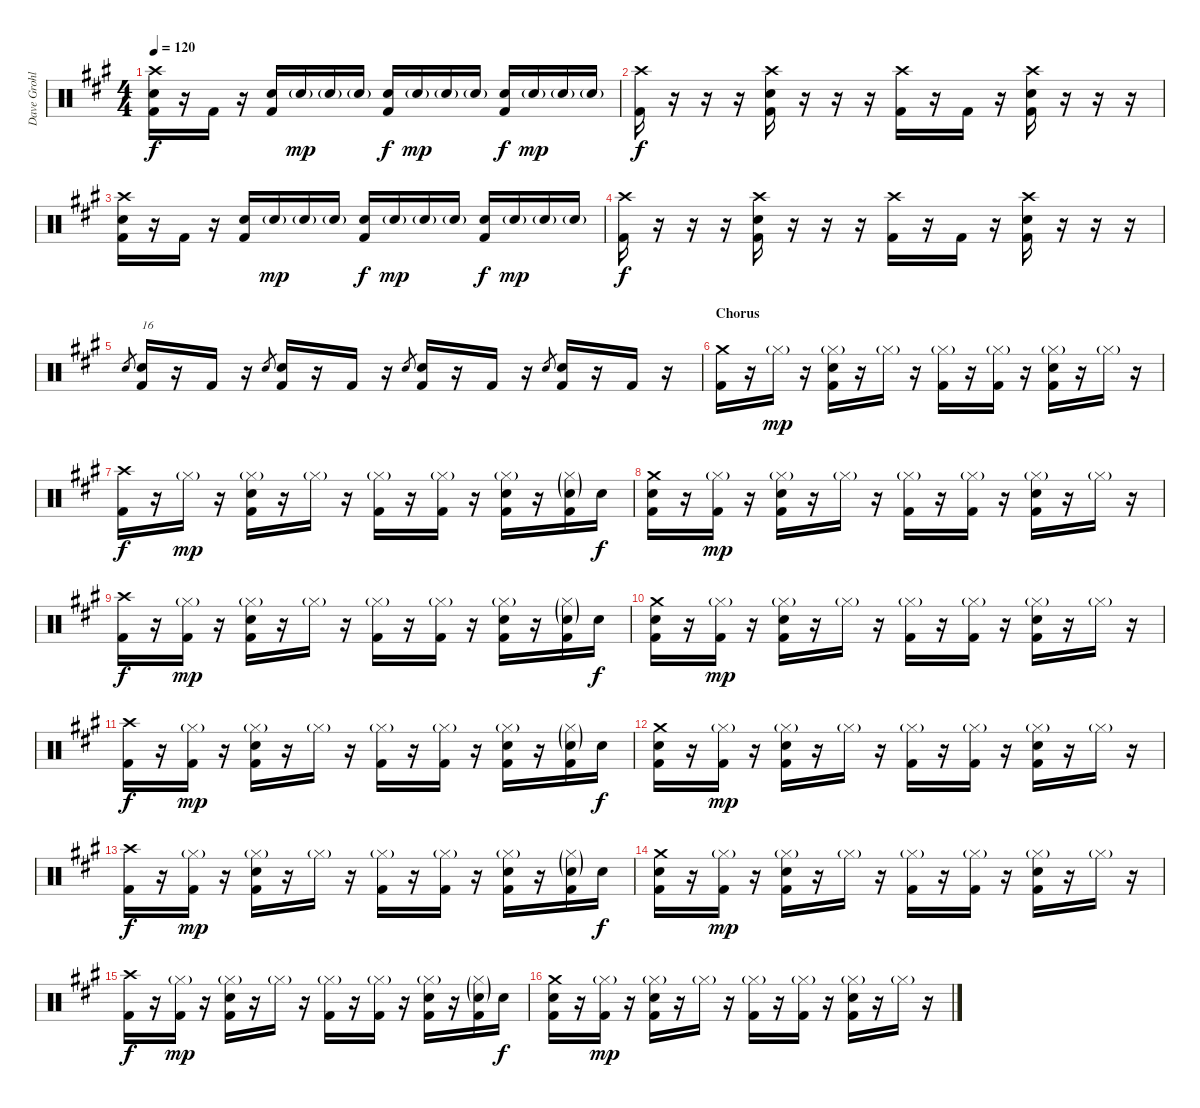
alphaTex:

\track ("Dave Grohl (Drums)" "Dave Grohl") {instrument percussion}
\staff {score}
\articulation defaults
\ts (4 4)
\tempo 120
\clef neutral
\ks a
("Crash high (hit)" "Snare (hit) 2" "Kick (hit) 2").16{dy f} r.16 "Kick (hit) 2".16 r.16 ("Snare (hit) 2" "Kick (hit) 2").16 "Snare (hit) 2"{g}.16{dy mp} "Snare (hit) 2"{g}.16 "Snare (hit) 2"{g}.16 ("Snare (hit) 2" "Kick (hit) 2").16{dy f} "Snare (hit) 2"{g}.16{dy mp} "Snare (hit) 2"{g}.16 "Snare (hit) 2"{g}.16 ("Snare (hit) 2" "Kick (hit) 2").16{dy f} "Snare (hit) 2"{g}.16{dy mp} "Snare (hit) 2"{g}.16 "Snare (hit) 2"{g}.16 |
("Crash high (hit)" "Kick (hit) 2").16{dy f} r.16 r.16 r.16 ("Crash high (hit)" "Snare (hit) 2" "Kick (hit) 2").16 r.16 r.16 r.16 ("Crash high (hit)" "Kick (hit) 2").16 r.16 "Kick (hit) 2".16 r.16 ("Crash high (hit)" "Snare (hit) 2" "Kick (hit) 2").16 r.16 r.16 r.16 |
("Crash high (hit)" "Snare (hit) 2" "Kick (hit) 2").16 r.16 "Kick (hit) 2".16 r.16 ("Snare (hit) 2" "Kick (hit) 2").16 "Snare (hit) 2"{g}.16{dy mp} "Snare (hit) 2"{g}.16 "Snare (hit) 2"{g}.16 ("Snare (hit) 2" "Kick (hit) 2").16{dy f} "Snare (hit) 2"{g}.16{dy mp} "Snare (hit) 2"{g}.16 "Snare (hit) 2"{g}.16 ("Snare (hit) 2" "Kick (hit) 2").16{dy f} "Snare (hit) 2"{g}.16{dy mp} "Snare (hit) 2"{g}.16 "Snare (hit) 2"{g}.16 |
("Crash high (hit)" "Kick (hit) 2").16{dy f} r.16 r.16 r.16 ("Crash high (hit)" "Snare (hit) 2" "Kick (hit) 2").16 r.16 r.16 r.16 ("Crash high (hit)" "Kick (hit) 2").16 r.16 "Kick (hit) 2".16 r.16 ("Crash high (hit)" "Snare (hit) 2" "Kick (hit) 2").16 r.16 r.16 r.16 |
"Snare (hit) 2".8{gr} ("Snare (hit) 2" "Kick (hit) 2").16{txt "16" volume 16} r.16 "Kick (hit) 2".16 r.16 "Snare (hit) 2".8{gr} ("Snare (hit) 2" "Kick (hit) 2").16 r.16 "Kick (hit) 2".16 r.16 "Snare (hit) 2".8{gr} ("Snare (hit) 2" "Kick (hit) 2").16 r.16 "Kick (hit) 2".16 r.16 "Snare (hit) 2".8{gr} ("Snare (hit) 2" "Kick (hit) 2").16 r.16 "Kick (hit) 2".16 r.16 |
\section ("" "Chorus")
("Crash medium (hit)" "Kick (hit) 2").16 r.16 "Hi-Hat (closed)"{g}.16{dy mp} r.16 ("Hi-Hat (closed)"{g} "Snare (hit) 2" "Kick (hit) 2").16 r.16 "Hi-Hat (closed)"{g}.16 r.16 ("Hi-Hat (closed)"{g} "Kick (hit) 2").16 r.16 ("Hi-Hat (closed)"{g} "Kick (hit) 2").16 r.16 ("Hi-Hat (closed)"{g} "Snare (hit) 2" "Kick (hit) 2").16 r.16 "Hi-Hat (closed)"{g}.16 r.16 |
("Crash high (hit)" "Kick (hit) 2").16{dy f} r.16 "Hi-Hat (closed)"{g}.16{dy mp} r.16 ("Hi-Hat (closed)"{g} "Snare (hit) 2" "Kick (hit) 2").16 r.16 "Hi-Hat (closed)"{g}.16 r.16 ("Hi-Hat (closed)"{g} "Kick (hit) 2").16 r.16 ("Hi-Hat (closed)"{g} "Kick (hit) 2").16 r.16 ("Hi-Hat (closed)"{g} "Snare (hit) 2" "Kick (hit) 2").16 r.16 ("Hi-Hat (closed)"{g} "Snare (hit) 2"{g} "Kick (hit) 2").16 "Snare (hit) 2".16{dy f} |
("Crash medium (hit)" "Snare (hit) 2" "Kick (hit) 2").16 r.16 ("Hi-Hat (closed)"{g} "Kick (hit) 2").16{dy mp} r.16 ("Hi-Hat (closed)"{g} "Snare (hit) 2" "Kick (hit) 2").16 r.16 "Hi-Hat (closed)"{g}.16 r.16 ("Hi-Hat (closed)"{g} "Kick (hit) 2").16 r.16 ("Hi-Hat (closed)"{g} "Kick (hit) 2").16 r.16 ("Hi-Hat (closed)"{g} "Snare (hit) 2" "Kick (hit) 2").16 r.16 "Hi-Hat (closed)"{g}.16 r.16 |
("Crash high (hit)" "Kick (hit) 2").16{dy f} r.16 ("Hi-Hat (closed)"{g} "Kick (hit) 2").16{dy mp} r.16 ("Hi-Hat (closed)"{g} "Snare (hit) 2" "Kick (hit) 2").16 r.16 "Hi-Hat (closed)"{g}.16 r.16 ("Hi-Hat (closed)"{g} "Kick (hit) 2").16 r.16 ("Hi-Hat (closed)"{g} "Kick (hit) 2").16 r.16 ("Hi-Hat (closed)"{g} "Snare (hit) 2" "Kick (hit) 2").16 r.16 ("Hi-Hat (closed)"{g} "Snare (hit) 2"{g} "Kick (hit) 2").16 "Snare (hit) 2".16{dy f} |
("Crash medium (hit)" "Snare (hit) 2" "Kick (hit) 2").16 r.16 ("Hi-Hat (closed)"{g} "Kick (hit) 2").16{dy mp} r.16 ("Hi-Hat (closed)"{g} "Snare (hit) 2" "Kick (hit) 2").16 r.16 "Hi-Hat (closed)"{g}.16 r.16 ("Hi-Hat (closed)"{g} "Kick (hit) 2").16 r.16 ("Hi-Hat (closed)"{g} "Kick (hit) 2").16 r.16 ("Hi-Hat (closed)"{g} "Snare (hit) 2" "Kick (hit) 2").16 r.16 "Hi-Hat (closed)"{g}.16 r.16 |
("Crash high (hit)" "Kick (hit) 2").16{dy f} r.16 ("Hi-Hat (closed)"{g} "Kick (hit) 2").16{dy mp} r.16 ("Hi-Hat (closed)"{g} "Snare (hit) 2" "Kick (hit) 2").16 r.16 "Hi-Hat (closed)"{g}.16 r.16 ("Hi-Hat (closed)"{g} "Kick (hit) 2").16 r.16 ("Hi-Hat (closed)"{g} "Kick (hit) 2").16 r.16 ("Hi-Hat (closed)"{g} "Snare (hit) 2" "Kick (hit) 2").16 r.16 ("Hi-Hat (closed)"{g} "Snare (hit) 2"{g} "Kick (hit) 2").16 "Snare (hit) 2".16{dy f} |
("Crash medium (hit)" "Snare (hit) 2" "Kick (hit) 2").16 r.16 ("Hi-Hat (closed)"{g} "Kick (hit) 2").16{dy mp} r.16 ("Hi-Hat (closed)"{g} "Snare (hit) 2" "Kick (hit) 2").16 r.16 "Hi-Hat (closed)"{g}.16 r.16 ("Hi-Hat (closed)"{g} "Kick (hit) 2").16 r.16 ("Hi-Hat (closed)"{g} "Kick (hit) 2").16 r.16 ("Hi-Hat (closed)"{g} "Snare (hit) 2" "Kick (hit) 2").16 r.16 "Hi-Hat (closed)"{g}.16 r.16 |
("Crash high (hit)" "Kick (hit) 2").16{dy f} r.16 ("Hi-Hat (closed)"{g} "Kick (hit) 2").16{dy mp} r.16 ("Hi-Hat (closed)"{g} "Snare (hit) 2" "Kick (hit) 2").16 r.16 "Hi-Hat (closed)"{g}.16 r.16 ("Hi-Hat (closed)"{g} "Kick (hit) 2").16 r.16 ("Hi-Hat (closed)"{g} "Kick (hit) 2").16 r.16 ("Hi-Hat (closed)"{g} "Snare (hit) 2" "Kick (hit) 2").16 r.16 ("Hi-Hat (closed)"{g} "Snare (hit) 2"{g} "Kick (hit) 2").16 "Snare (hit) 2".16{dy f} |
("Crash medium (hit)" "Snare (hit) 2" "Kick (hit) 2").16 r.16 ("Hi-Hat (closed)"{g} "Kick (hit) 2").16{dy mp} r.16 ("Hi-Hat (closed)"{g} "Snare (hit) 2" "Kick (hit) 2").16 r.16 "Hi-Hat (closed)"{g}.16 r.16 ("Hi-Hat (closed)"{g} "Kick (hit) 2").16 r.16 ("Hi-Hat (closed)"{g} "Kick (hit) 2").16 r.16 ("Hi-Hat (closed)"{g} "Snare (hit) 2" "Kick (hit) 2").16 r.16 "Hi-Hat (closed)"{g}.16 r.16 |
("Crash high (hit)" "Kick (hit) 2").16{dy f} r.16 ("Hi-Hat (closed)"{g} "Kick (hit) 2").16{dy mp} r.16 ("Hi-Hat (closed)"{g} "Snare (hit) 2" "Kick (hit) 2").16 r.16 "Hi-Hat (closed)"{g}.16 r.16 ("Hi-Hat (closed)"{g} "Kick (hit) 2").16 r.16 ("Hi-Hat (closed)"{g} "Kick (hit) 2").16 r.16 ("Hi-Hat (closed)"{g} "Snare (hit) 2" "Kick (hit) 2").16 r.16 ("Hi-Hat (closed)"{g} "Snare (hit) 2"{g} "Kick (hit) 2").16 "Snare (hit) 2".16{dy f} |
("Crash medium (hit)" "Snare (hit) 2" "Kick (hit) 2").16 r.16 ("Hi-Hat (closed)"{g} "Kick (hit) 2").16{dy mp} r.16 ("Hi-Hat (closed)"{g} "Snare (hit) 2" "Kick (hit) 2").16 r.16 "Hi-Hat (closed)"{g}.16 r.16 ("Hi-Hat (closed)"{g} "Kick (hit) 2").16 r.16 ("Hi-Hat (closed)"{g} "Kick (hit) 2").16 r.16 ("Hi-Hat (closed)"{g} "Snare (hit) 2" "Kick (hit) 2").16 r.16 "Hi-Hat (closed)"{g}.16 r.16
